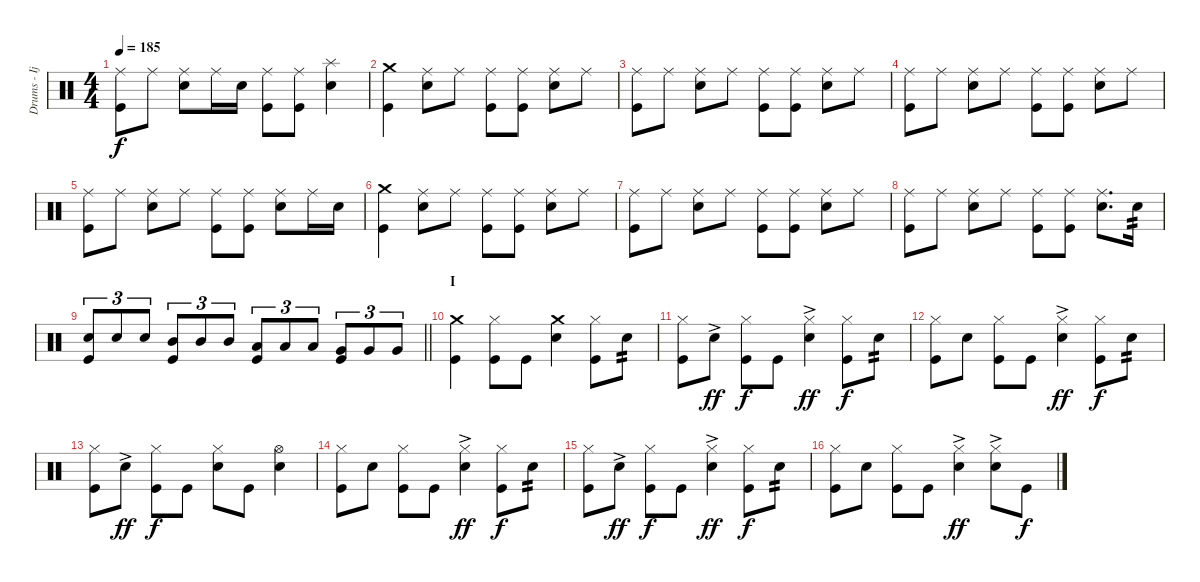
\track ("Drums - Ijichi" "Drums - Ij") {instrument percussion}
\staff {score}
\articulation defaults
\ts (4 4)
\tempo 185
\clef neutral
\ks c
("Ride (middle)" "Kick (hit)").8{dy f} "Ride (middle)".8 ("Ride (middle)" "Electric Snare (hit)").8 "Ride (middle)".16 "Electric Snare (hit)".16 ("Ride (middle)" "Kick (hit)").8 ("Ride (middle)" "Kick (hit)").8 ("Splash (hit)" "Electric Snare (hit)").4 |
("Crash medium (hit)" "Kick (hit)").4 ("Ride (middle)" "Electric Snare (hit)").8 "Ride (middle)".8 ("Ride (middle)" "Kick (hit)").8 ("Ride (middle)" "Kick (hit)").8 ("Ride (middle)" "Electric Snare (hit)").8 "Ride (middle)".8 |
("Ride (middle)" "Kick (hit)").8 "Ride (middle)".8 ("Ride (middle)" "Electric Snare (hit)").8 "Ride (middle)".8 ("Ride (middle)" "Kick (hit)").8 ("Ride (middle)" "Kick (hit)").8 ("Ride (middle)" "Electric Snare (hit)").8 "Ride (middle)".8 |
("Ride (middle)" "Kick (hit)").8 "Ride (middle)".8 ("Ride (middle)" "Electric Snare (hit)").8 "Ride (middle)".8 ("Ride (middle)" "Kick (hit)").8 ("Ride (middle)" "Kick (hit)").8 ("Ride (middle)" "Electric Snare (hit)").8 "Ride (middle)".8 |
("Ride (middle)" "Kick (hit)").8 "Ride (middle)".8 ("Ride (middle)" "Electric Snare (hit)").8 "Ride (middle)".8 ("Ride (middle)" "Kick (hit)").8 ("Ride (middle)" "Kick (hit)").8 ("Ride (middle)" "Electric Snare (hit)").8 "Ride (middle)".16 "Electric Snare (hit)".16 |
("Crash medium (hit)" "Kick (hit)").4 ("Ride (middle)" "Electric Snare (hit)").8 "Ride (middle)".8 ("Ride (middle)" "Kick (hit)").8 ("Ride (middle)" "Kick (hit)").8 ("Ride (middle)" "Electric Snare (hit)").8 "Ride (middle)".8 |
("Ride (middle)" "Kick (hit)").8 "Ride (middle)".8 ("Ride (middle)" "Electric Snare (hit)").8 "Ride (middle)".8 ("Ride (middle)" "Kick (hit)").8 ("Ride (middle)" "Kick (hit)").8 ("Ride (middle)" "Electric Snare (hit)").8 "Ride (middle)".8 |
("Ride (middle)" "Kick (hit)").8 "Ride (middle)".8 ("Ride (middle)" "Electric Snare (hit)").8 "Ride (middle)".8 ("Ride (middle)" "Kick (hit)").8 ("Ride (middle)" "Kick (hit)").8 ("Ride (middle)" "Electric Snare (hit)").8{d} "Electric Snare (hit)".16{tp 2} |
\barLineRight lightlight
("Electric Snare (hit)" "Kick (hit)").8{tu (3 2)} "Electric Snare (hit)".8{tu (3 2)} "Electric Snare (hit)".8{tu (3 2)} ("Mid Tom (hit)" "Kick (hit)").8{tu (3 2)} "Mid Tom (hit)".8{tu (3 2)} "Mid Tom (hit)".8{tu (3 2)} ("Low Tom (hit)" "Kick (hit)").8{tu (3 2)} "Low Tom (hit)".8{tu (3 2)} "Low Tom (hit)".8{tu (3 2)} ("Very Low Tom (hit)" "Kick (hit)").8{tu (3 2)} "Very Low Tom (hit)".8{tu (3 2)} "Very Low Tom (hit)".8{tu (3 2)} |
\section ("" "I")
("Crash medium (hit)" "Kick (hit)").4 ("Hi-Hat (closed)" "Kick (hit)").8 "Kick (hit)".8 ("Crash medium (hit)" "Electric Snare (hit)").4 ("Hi-Hat (closed)" "Kick (hit)").8 "Electric Snare (hit)".8{tp 2} |
("Hi-Hat (closed)" "Kick (hit)").8 "Electric Snare (hit)"{ac}.8{dy ff} ("Hi-Hat (closed)" "Kick (hit)").8{dy f} "Kick (hit)".8 ("Hi-Hat (closed)"{ac} "Electric Snare (hit)"{ac}).4{dy ff} ("Hi-Hat (closed)" "Kick (hit)").8{dy f} "Electric Snare (hit)".8{tp 2} |
("Hi-Hat (closed)" "Kick (hit)").8 "Electric Snare (hit)".8 ("Hi-Hat (closed)" "Kick (hit)").8 "Kick (hit)".8 ("Hi-Hat (closed)"{ac} "Electric Snare (hit)"{ac}).4{dy ff} ("Hi-Hat (closed)" "Kick (hit)").8{dy f} "Electric Snare (hit)".8{tp 2} |
("Hi-Hat (closed)" "Kick (hit)").8 "Electric Snare (hit)"{ac}.8{dy ff} ("Hi-Hat (closed)" "Kick (hit)").8{dy f} "Kick (hit)".8 ("Hi-Hat (closed)" "Electric Snare (hit)").8 "Kick (hit)".8 ("Hi-Hat (open)" "Electric Snare (hit)").4 |
("Hi-Hat (closed)" "Kick (hit)").8 "Electric Snare (hit)".8 ("Hi-Hat (closed)" "Kick (hit)").8 "Kick (hit)".8 ("Hi-Hat (closed)"{ac} "Electric Snare (hit)"{ac}).4{dy ff} ("Hi-Hat (closed)" "Kick (hit)").8{dy f} "Electric Snare (hit)".8{tp 2} |
("Hi-Hat (closed)" "Kick (hit)").8 "Electric Snare (hit)"{ac}.8{dy ff} ("Hi-Hat (closed)" "Kick (hit)").8{dy f} "Kick (hit)".8 ("Hi-Hat (closed)"{ac} "Electric Snare (hit)"{ac}).4{dy ff} ("Hi-Hat (closed)" "Kick (hit)").8{dy f} "Electric Snare (hit)".8{tp 2} |
("Hi-Hat (closed)" "Kick (hit)").8 "Electric Snare (hit)".8 ("Hi-Hat (closed)" "Kick (hit)").8 "Kick (hit)".8 ("Hi-Hat (closed)"{ac} "Electric Snare (hit)"{ac}).4{dy ff} ("Hi-Hat (closed)"{ac} "Electric Snare (hit)"{ac}).8 "Kick (hit)".8{dy f}
